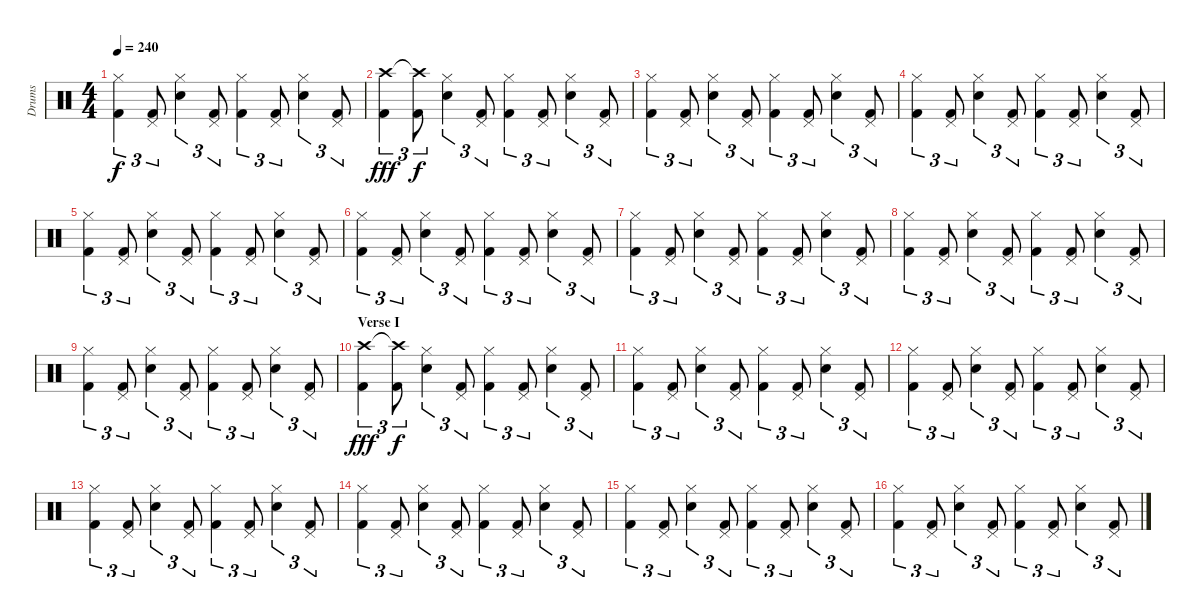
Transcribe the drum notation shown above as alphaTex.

\track ("Drums" "Drums") {instrument percussion}
\staff {score}
\articulation defaults
\ts (4 4)
\tempo 240
\clef neutral
\ks c
("Hi-Hat (closed)" "Kick (hit) 2").4{tu (3 2) dy f} ("Pedal Hi-Hat (hit)" "Kick (hit) 2").8{tu (3 2)} ("Hi-Hat (closed)" "Snare (hit) 2").4{tu (3 2)} ("Pedal Hi-Hat (hit)" "Kick (hit) 2").8{tu (3 2)} ("Hi-Hat (closed)" "Kick (hit) 2").4{tu (3 2)} ("Pedal Hi-Hat (hit)" "Kick (hit) 2").8{tu (3 2)} ("Hi-Hat (closed)" "Snare (hit) 2").4{tu (3 2)} ("Pedal Hi-Hat (hit)" "Kick (hit) 2").8{tu (3 2)} |
("Crash high (hit)" "Kick (hit) 2").4{tu (3 2) dy fff} ("Crash high (hit)"{t} "Kick (hit) 2").8{tu (3 2) dy f} ("Hi-Hat (closed)" "Snare (hit) 2").4{tu (3 2)} ("Pedal Hi-Hat (hit)" "Kick (hit) 2").8{tu (3 2)} ("Hi-Hat (closed)" "Kick (hit) 2").4{tu (3 2)} ("Pedal Hi-Hat (hit)" "Kick (hit) 2").8{tu (3 2)} ("Hi-Hat (closed)" "Snare (hit) 2").4{tu (3 2)} ("Pedal Hi-Hat (hit)" "Kick (hit) 2").8{tu (3 2)} |
("Hi-Hat (closed)" "Kick (hit) 2").4{tu (3 2)} ("Pedal Hi-Hat (hit)" "Kick (hit) 2").8{tu (3 2)} ("Hi-Hat (closed)" "Snare (hit) 2").4{tu (3 2)} ("Pedal Hi-Hat (hit)" "Kick (hit) 2").8{tu (3 2)} ("Hi-Hat (closed)" "Kick (hit) 2").4{tu (3 2)} ("Pedal Hi-Hat (hit)" "Kick (hit) 2").8{tu (3 2)} ("Hi-Hat (closed)" "Snare (hit) 2").4{tu (3 2)} ("Pedal Hi-Hat (hit)" "Kick (hit) 2").8{tu (3 2)} |
("Hi-Hat (closed)" "Kick (hit) 2").4{tu (3 2)} ("Pedal Hi-Hat (hit)" "Kick (hit) 2").8{tu (3 2)} ("Hi-Hat (closed)" "Snare (hit) 2").4{tu (3 2)} ("Pedal Hi-Hat (hit)" "Kick (hit) 2").8{tu (3 2)} ("Hi-Hat (closed)" "Kick (hit) 2").4{tu (3 2)} ("Pedal Hi-Hat (hit)" "Kick (hit) 2").8{tu (3 2)} ("Hi-Hat (closed)" "Snare (hit) 2").4{tu (3 2)} ("Pedal Hi-Hat (hit)" "Kick (hit) 2").8{tu (3 2)} |
("Hi-Hat (closed)" "Kick (hit) 2").4{tu (3 2)} ("Pedal Hi-Hat (hit)" "Kick (hit) 2").8{tu (3 2)} ("Hi-Hat (closed)" "Snare (hit) 2").4{tu (3 2)} ("Pedal Hi-Hat (hit)" "Kick (hit) 2").8{tu (3 2)} ("Hi-Hat (closed)" "Kick (hit) 2").4{tu (3 2)} ("Pedal Hi-Hat (hit)" "Kick (hit) 2").8{tu (3 2)} ("Hi-Hat (closed)" "Snare (hit) 2").4{tu (3 2)} ("Pedal Hi-Hat (hit)" "Kick (hit) 2").8{tu (3 2)} |
("Hi-Hat (closed)" "Kick (hit) 2").4{tu (3 2)} ("Pedal Hi-Hat (hit)" "Kick (hit) 2").8{tu (3 2)} ("Hi-Hat (closed)" "Snare (hit) 2").4{tu (3 2)} ("Pedal Hi-Hat (hit)" "Kick (hit) 2").8{tu (3 2)} ("Hi-Hat (closed)" "Kick (hit) 2").4{tu (3 2)} ("Pedal Hi-Hat (hit)" "Kick (hit) 2").8{tu (3 2)} ("Hi-Hat (closed)" "Snare (hit) 2").4{tu (3 2)} ("Pedal Hi-Hat (hit)" "Kick (hit) 2").8{tu (3 2)} |
("Hi-Hat (closed)" "Kick (hit) 2").4{tu (3 2)} ("Pedal Hi-Hat (hit)" "Kick (hit) 2").8{tu (3 2)} ("Hi-Hat (closed)" "Snare (hit) 2").4{tu (3 2)} ("Pedal Hi-Hat (hit)" "Kick (hit) 2").8{tu (3 2)} ("Hi-Hat (closed)" "Kick (hit) 2").4{tu (3 2)} ("Pedal Hi-Hat (hit)" "Kick (hit) 2").8{tu (3 2)} ("Hi-Hat (closed)" "Snare (hit) 2").4{tu (3 2)} ("Pedal Hi-Hat (hit)" "Kick (hit) 2").8{tu (3 2)} |
("Hi-Hat (closed)" "Kick (hit) 2").4{tu (3 2)} ("Pedal Hi-Hat (hit)" "Kick (hit) 2").8{tu (3 2)} ("Hi-Hat (closed)" "Snare (hit) 2").4{tu (3 2)} ("Pedal Hi-Hat (hit)" "Kick (hit) 2").8{tu (3 2)} ("Hi-Hat (closed)" "Kick (hit) 2").4{tu (3 2)} ("Pedal Hi-Hat (hit)" "Kick (hit) 2").8{tu (3 2)} ("Hi-Hat (closed)" "Snare (hit) 2").4{tu (3 2)} ("Pedal Hi-Hat (hit)" "Kick (hit) 2").8{tu (3 2)} |
("Hi-Hat (closed)" "Kick (hit) 2").4{tu (3 2)} ("Pedal Hi-Hat (hit)" "Kick (hit) 2").8{tu (3 2)} ("Hi-Hat (closed)" "Snare (hit) 2").4{tu (3 2)} ("Pedal Hi-Hat (hit)" "Kick (hit) 2").8{tu (3 2)} ("Hi-Hat (closed)" "Kick (hit) 2").4{tu (3 2)} ("Pedal Hi-Hat (hit)" "Kick (hit) 2").8{tu (3 2)} ("Hi-Hat (closed)" "Snare (hit) 2").4{tu (3 2)} ("Pedal Hi-Hat (hit)" "Kick (hit) 2").8{tu (3 2)} |
\section ("" "Verse I")
("Crash high (hit)" "Kick (hit) 2").4{tu (3 2) dy fff} ("Crash high (hit)"{t} "Kick (hit) 2").8{tu (3 2) dy f} ("Hi-Hat (closed)" "Snare (hit) 2").4{tu (3 2)} ("Pedal Hi-Hat (hit)" "Kick (hit) 2").8{tu (3 2)} ("Hi-Hat (closed)" "Kick (hit) 2").4{tu (3 2)} ("Pedal Hi-Hat (hit)" "Kick (hit) 2").8{tu (3 2)} ("Hi-Hat (closed)" "Snare (hit) 2").4{tu (3 2)} ("Pedal Hi-Hat (hit)" "Kick (hit) 2").8{tu (3 2)} |
("Hi-Hat (closed)" "Kick (hit) 2").4{tu (3 2)} ("Pedal Hi-Hat (hit)" "Kick (hit) 2").8{tu (3 2)} ("Hi-Hat (closed)" "Snare (hit) 2").4{tu (3 2)} ("Pedal Hi-Hat (hit)" "Kick (hit) 2").8{tu (3 2)} ("Hi-Hat (closed)" "Kick (hit) 2").4{tu (3 2)} ("Pedal Hi-Hat (hit)" "Kick (hit) 2").8{tu (3 2)} ("Hi-Hat (closed)" "Snare (hit) 2").4{tu (3 2)} ("Pedal Hi-Hat (hit)" "Kick (hit) 2").8{tu (3 2)} |
("Hi-Hat (closed)" "Kick (hit) 2").4{tu (3 2)} ("Pedal Hi-Hat (hit)" "Kick (hit) 2").8{tu (3 2)} ("Hi-Hat (closed)" "Snare (hit) 2").4{tu (3 2)} ("Pedal Hi-Hat (hit)" "Kick (hit) 2").8{tu (3 2)} ("Hi-Hat (closed)" "Kick (hit) 2").4{tu (3 2)} ("Pedal Hi-Hat (hit)" "Kick (hit) 2").8{tu (3 2)} ("Hi-Hat (closed)" "Snare (hit) 2").4{tu (3 2)} ("Pedal Hi-Hat (hit)" "Kick (hit) 2").8{tu (3 2)} |
("Hi-Hat (closed)" "Kick (hit) 2").4{tu (3 2)} ("Pedal Hi-Hat (hit)" "Kick (hit) 2").8{tu (3 2)} ("Hi-Hat (closed)" "Snare (hit) 2").4{tu (3 2)} ("Pedal Hi-Hat (hit)" "Kick (hit) 2").8{tu (3 2)} ("Hi-Hat (closed)" "Kick (hit) 2").4{tu (3 2)} ("Pedal Hi-Hat (hit)" "Kick (hit) 2").8{tu (3 2)} ("Hi-Hat (closed)" "Snare (hit) 2").4{tu (3 2)} ("Pedal Hi-Hat (hit)" "Kick (hit) 2").8{tu (3 2)} |
("Hi-Hat (closed)" "Kick (hit) 2").4{tu (3 2)} ("Pedal Hi-Hat (hit)" "Kick (hit) 2").8{tu (3 2)} ("Hi-Hat (closed)" "Snare (hit) 2").4{tu (3 2)} ("Pedal Hi-Hat (hit)" "Kick (hit) 2").8{tu (3 2)} ("Hi-Hat (closed)" "Kick (hit) 2").4{tu (3 2)} ("Pedal Hi-Hat (hit)" "Kick (hit) 2").8{tu (3 2)} ("Hi-Hat (closed)" "Snare (hit) 2").4{tu (3 2)} ("Pedal Hi-Hat (hit)" "Kick (hit) 2").8{tu (3 2)} |
("Hi-Hat (closed)" "Kick (hit) 2").4{tu (3 2)} ("Pedal Hi-Hat (hit)" "Kick (hit) 2").8{tu (3 2)} ("Hi-Hat (closed)" "Snare (hit) 2").4{tu (3 2)} ("Pedal Hi-Hat (hit)" "Kick (hit) 2").8{tu (3 2)} ("Hi-Hat (closed)" "Kick (hit) 2").4{tu (3 2)} ("Pedal Hi-Hat (hit)" "Kick (hit) 2").8{tu (3 2)} ("Hi-Hat (closed)" "Snare (hit) 2").4{tu (3 2)} ("Pedal Hi-Hat (hit)" "Kick (hit) 2").8{tu (3 2)} |
("Hi-Hat (closed)" "Kick (hit) 2").4{tu (3 2)} ("Pedal Hi-Hat (hit)" "Kick (hit) 2").8{tu (3 2)} ("Hi-Hat (closed)" "Snare (hit) 2").4{tu (3 2)} ("Pedal Hi-Hat (hit)" "Kick (hit) 2").8{tu (3 2)} ("Hi-Hat (closed)" "Kick (hit) 2").4{tu (3 2)} ("Pedal Hi-Hat (hit)" "Kick (hit) 2").8{tu (3 2)} ("Hi-Hat (closed)" "Snare (hit) 2").4{tu (3 2)} ("Pedal Hi-Hat (hit)" "Kick (hit) 2").8{tu (3 2)}
